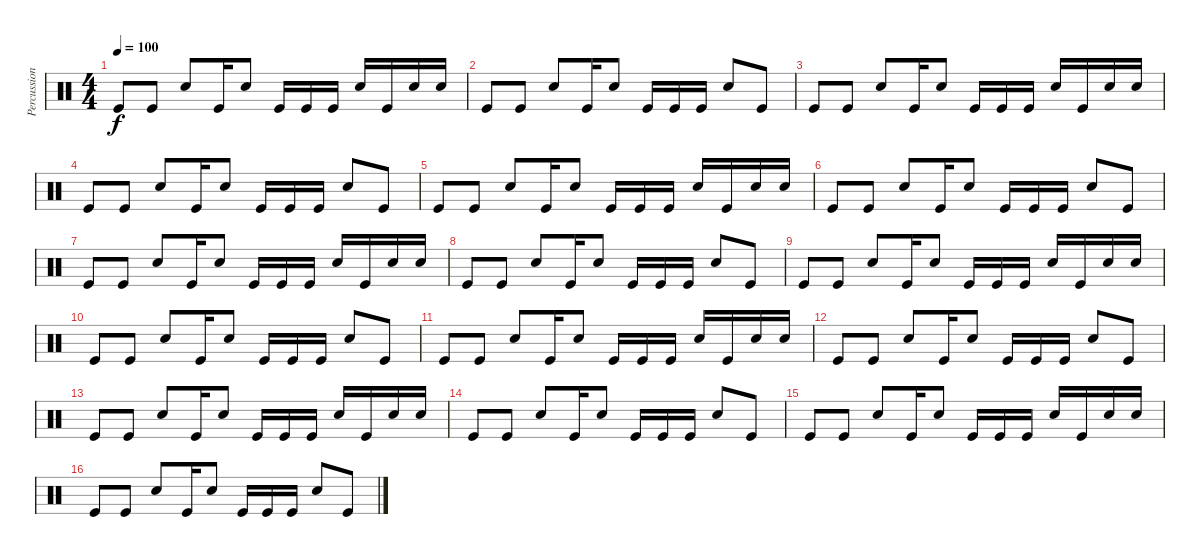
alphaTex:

\track ("Percussions" "Percussion") {instrument percussion}
\staff {score}
\articulation defaults
\ts (4 4)
\tempo 100
\clef neutral
\ks c "Kick (hit)".8{dy f} "Kick (hit)".8 "Electric Snare (hit)".8 "Kick (hit)".16 "Electric Snare (hit)".8 "Kick (hit)".16 "Kick (hit)".16 "Kick (hit)".16 "Electric Snare (hit)".16 "Kick (hit)".16 "Electric Snare (hit)".16 "Electric Snare (hit)".16
|
"Kick (hit)".8 "Kick (hit)".8 "Electric Snare (hit)".8 "Kick (hit)".16 "Electric Snare (hit)".8 "Kick (hit)".16 "Kick (hit)".16 "Kick (hit)".16 "Electric Snare (hit)".8 "Kick (hit)".8 |
"Kick (hit)".8 "Kick (hit)".8 "Electric Snare (hit)".8 "Kick (hit)".16 "Electric Snare (hit)".8 "Kick (hit)".16 "Kick (hit)".16 "Kick (hit)".16 "Electric Snare (hit)".16 "Kick (hit)".16 "Electric Snare (hit)".16 "Electric Snare (hit)".16 |
"Kick (hit)".8 "Kick (hit)".8 "Electric Snare (hit)".8 "Kick (hit)".16 "Electric Snare (hit)".8 "Kick (hit)".16 "Kick (hit)".16 "Kick (hit)".16 "Electric Snare (hit)".8 "Kick (hit)".8 |
"Kick (hit)".8 "Kick (hit)".8 "Electric Snare (hit)".8 "Kick (hit)".16 "Electric Snare (hit)".8 "Kick (hit)".16 "Kick (hit)".16 "Kick (hit)".16 "Electric Snare (hit)".16 "Kick (hit)".16 "Electric Snare (hit)".16 "Electric Snare (hit)".16 |
"Kick (hit)".8 "Kick (hit)".8 "Electric Snare (hit)".8 "Kick (hit)".16 "Electric Snare (hit)".8 "Kick (hit)".16 "Kick (hit)".16 "Kick (hit)".16 "Electric Snare (hit)".8 "Kick (hit)".8 |
"Kick (hit)".8 "Kick (hit)".8 "Electric Snare (hit)".8 "Kick (hit)".16 "Electric Snare (hit)".8 "Kick (hit)".16 "Kick (hit)".16 "Kick (hit)".16 "Electric Snare (hit)".16 "Kick (hit)".16 "Electric Snare (hit)".16 "Electric Snare (hit)".16 |
"Kick (hit)".8 "Kick (hit)".8 "Electric Snare (hit)".8 "Kick (hit)".16 "Electric Snare (hit)".8 "Kick (hit)".16 "Kick (hit)".16 "Kick (hit)".16 "Electric Snare (hit)".8 "Kick (hit)".8 |
"Kick (hit)".8 "Kick (hit)".8 "Electric Snare (hit)".8 "Kick (hit)".16 "Electric Snare (hit)".8 "Kick (hit)".16 "Kick (hit)".16 "Kick (hit)".16 "Electric Snare (hit)".16 "Kick (hit)".16 "Electric Snare (hit)".16 "Electric Snare (hit)".16 |
"Kick (hit)".8 "Kick (hit)".8 "Electric Snare (hit)".8 "Kick (hit)".16 "Electric Snare (hit)".8 "Kick (hit)".16 "Kick (hit)".16 "Kick (hit)".16 "Electric Snare (hit)".8 "Kick (hit)".8 |
"Kick (hit)".8 "Kick (hit)".8 "Electric Snare (hit)".8 "Kick (hit)".16 "Electric Snare (hit)".8 "Kick (hit)".16 "Kick (hit)".16 "Kick (hit)".16 "Electric Snare (hit)".16 "Kick (hit)".16 "Electric Snare (hit)".16 "Electric Snare (hit)".16 |
"Kick (hit)".8 "Kick (hit)".8 "Electric Snare (hit)".8 "Kick (hit)".16 "Electric Snare (hit)".8 "Kick (hit)".16 "Kick (hit)".16 "Kick (hit)".16 "Electric Snare (hit)".8 "Kick (hit)".8 |
"Kick (hit)".8 "Kick (hit)".8 "Electric Snare (hit)".8 "Kick (hit)".16 "Electric Snare (hit)".8 "Kick (hit)".16 "Kick (hit)".16 "Kick (hit)".16 "Electric Snare (hit)".16 "Kick (hit)".16 "Electric Snare (hit)".16 "Electric Snare (hit)".16 |
"Kick (hit)".8 "Kick (hit)".8 "Electric Snare (hit)".8 "Kick (hit)".16 "Electric Snare (hit)".8 "Kick (hit)".16 "Kick (hit)".16 "Kick (hit)".16 "Electric Snare (hit)".8 "Kick (hit)".8 |
"Kick (hit)".8 "Kick (hit)".8 "Electric Snare (hit)".8 "Kick (hit)".16 "Electric Snare (hit)".8 "Kick (hit)".16 "Kick (hit)".16 "Kick (hit)".16 "Electric Snare (hit)".16 "Kick (hit)".16 "Electric Snare (hit)".16 "Electric Snare (hit)".16 |
"Kick (hit)".8 "Kick (hit)".8 "Electric Snare (hit)".8 "Kick (hit)".16 "Electric Snare (hit)".8 "Kick (hit)".16 "Kick (hit)".16 "Kick (hit)".16 "Electric Snare (hit)".8 "Kick (hit)".8
